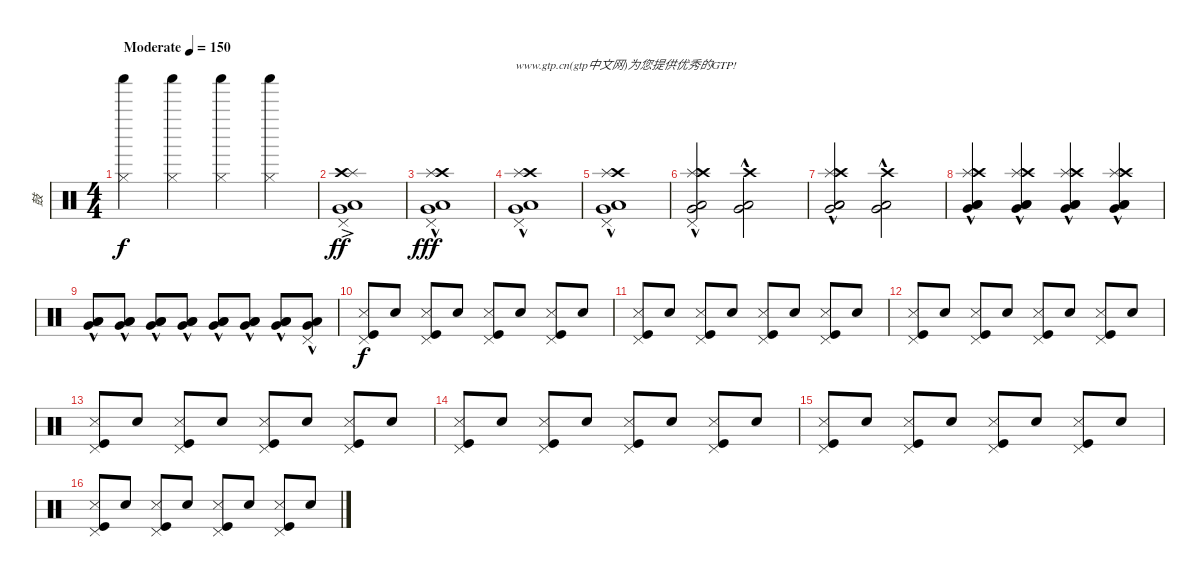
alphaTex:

\track ("鼓" "鼓") {instrument percussion}
\staff {score}
\articulation defaults
\ts (4 4)
\tempo (150 "Moderate")
\clef neutral
\ks c
("Hi-Hat (closed)" "Shaker (hit)").4{dy f} ("Hi-Hat (closed)" "Shaker (hit)").4 ("Hi-Hat (closed)" "Shaker (hit)").4 ("Hi-Hat (closed)" "Shaker (hit)").4 |
("Pedal Hi-Hat (hit)"{ac} "Low Tom (hit)"{ac} "Crash high (hit)"{ac} "Splash (hit)"{ac} "Very Low Tom (hit)"{ac}).1{dy ff} |
("Pedal Hi-Hat (hit)"{hac} "Low Tom (hit)"{hac} "Very Low Tom (hit)"{hac} "Splash (hit)"{hac} "Crash high (hit)"{hac}).1{dy fff} |
("Pedal Hi-Hat (hit)"{hac} "Low Tom (hit)"{hac} "Very Low Tom (hit)"{hac} "Splash (hit)"{hac} "Crash high (hit)"{hac}).1{txt "www.gtp.cn(gtp中文网)为您提供优秀的GTP!"} |
("Pedal Hi-Hat (hit)"{hac} "Low Tom (hit)"{hac} "Very Low Tom (hit)"{hac} "Splash (hit)"{hac} "Crash high (hit)"{hac}).1 |
("Pedal Hi-Hat (hit)"{hac} "Low Tom (hit)"{hac} "Very Low Tom (hit)"{hac} "Splash (hit)"{hac} "Crash high (hit)"{hac}).2 ("Low Floor Tom (hit)"{hac} "Very Low Tom (hit)"{hac} "Crash high (hit)"{hac}).2 |
("Low Floor Tom (hit)"{hac} "Low Tom (hit)"{hac} "Very Low Tom (hit)"{hac} "Splash (hit)"{hac} "Crash high (hit)"{hac}).2 ("Low Floor Tom (hit)"{hac} "Very Low Tom (hit)"{hac} "Crash high (hit)"{hac}).2 |
("Low Floor Tom (hit)"{hac} "Low Tom (hit)"{hac} "Very Low Tom (hit)"{hac} "Splash (hit)"{hac} "Crash high (hit)"{hac}).4 ("Low Floor Tom (hit)"{hac} "Low Tom (hit)"{hac} "Very Low Tom (hit)"{hac} "Splash (hit)"{hac} "Crash high (hit)"{hac}).4 ("Low Floor Tom (hit)"{hac} "Low Tom (hit)"{hac} "Very Low Tom (hit)"{hac} "Splash (hit)"{hac} "Crash high (hit)"{hac}).4 ("Low Floor Tom (hit)"{hac} "Low Tom (hit)"{hac} "Very Low Tom (hit)"{hac} "Splash (hit)"{hac} "Crash high (hit)"{hac}).4 |
("Low Floor Tom (hit)"{hac} "Low Tom (hit)"{hac} "Very Low Tom (hit)"{hac}).8 ("Low Floor Tom (hit)"{hac} "Low Tom (hit)"{hac} "Very Low Tom (hit)"{hac}).8 ("Low Floor Tom (hit)"{hac} "Low Tom (hit)"{hac} "Very Low Tom (hit)"{hac}).8 ("Low Floor Tom (hit)"{hac} "Low Tom (hit)"{hac} "Very Low Tom (hit)"{hac}).8 ("Low Floor Tom (hit)"{hac} "Low Tom (hit)"{hac} "Very Low Tom (hit)"{hac}).8 ("Low Floor Tom (hit)"{hac} "Low Tom (hit)"{hac} "Very Low Tom (hit)"{hac}).8 ("Low Floor Tom (hit)"{hac} "Low Tom (hit)"{hac} "Very Low Tom (hit)"{hac}).8 ("Low Floor Tom (hit)"{hac} "Pedal Hi-Hat (hit)"{hac} "Very Low Tom (hit)"{hac}).8 |
("Kick (hit)" "Snare (side stick) 3" "Pedal Hi-Hat (hit)").8{dy f} "Snare (hit) 2".8 ("Kick (hit)" "Snare (side stick) 3" "Pedal Hi-Hat (hit)").8 "Snare (hit) 2".8 ("Kick (hit)" "Snare (side stick) 3" "Pedal Hi-Hat (hit)").8 "Snare (hit) 2".8 ("Kick (hit)" "Snare (side stick) 3" "Pedal Hi-Hat (hit)").8 "Snare (hit) 2".8 |
("Kick (hit)" "Snare (side stick) 3" "Pedal Hi-Hat (hit)").8 "Snare (hit) 2".8 ("Kick (hit)" "Snare (side stick) 3" "Pedal Hi-Hat (hit)").8 "Snare (hit) 2".8 ("Kick (hit)" "Snare (side stick) 3" "Pedal Hi-Hat (hit)").8 "Snare (hit) 2".8 ("Kick (hit)" "Snare (side stick) 3" "Pedal Hi-Hat (hit)").8 "Snare (hit) 2".8 |
("Kick (hit)" "Snare (side stick) 3" "Pedal Hi-Hat (hit)").8 "Snare (hit) 2".8 ("Kick (hit)" "Snare (side stick) 3" "Pedal Hi-Hat (hit)").8 "Snare (hit) 2".8 ("Kick (hit)" "Snare (side stick) 3" "Pedal Hi-Hat (hit)").8 "Snare (hit) 2".8 ("Kick (hit)" "Snare (side stick) 3" "Pedal Hi-Hat (hit)").8 "Snare (hit) 2".8 |
("Kick (hit)" "Snare (side stick) 3" "Pedal Hi-Hat (hit)").8 "Snare (hit) 2".8 ("Kick (hit)" "Snare (side stick) 3" "Pedal Hi-Hat (hit)").8 "Snare (hit) 2".8 ("Kick (hit)" "Snare (side stick) 3" "Pedal Hi-Hat (hit)").8 "Snare (hit) 2".8 ("Kick (hit)" "Snare (side stick) 3" "Pedal Hi-Hat (hit)").8 "Snare (hit) 2".8 |
("Kick (hit)" "Snare (side stick) 3" "Pedal Hi-Hat (hit)").8 "Snare (hit) 2".8 ("Kick (hit)" "Snare (side stick) 3" "Pedal Hi-Hat (hit)").8 "Snare (hit) 2".8 ("Kick (hit)" "Snare (side stick) 3" "Pedal Hi-Hat (hit)").8 "Snare (hit) 2".8 ("Kick (hit)" "Snare (side stick) 3" "Pedal Hi-Hat (hit)").8 "Snare (hit) 2".8 |
("Kick (hit)" "Snare (side stick) 3" "Pedal Hi-Hat (hit)").8 "Snare (hit) 2".8 ("Kick (hit)" "Snare (side stick) 3" "Pedal Hi-Hat (hit)").8 "Snare (hit) 2".8 ("Kick (hit)" "Snare (side stick) 3" "Pedal Hi-Hat (hit)").8 "Snare (hit) 2".8 ("Kick (hit)" "Snare (side stick) 3" "Pedal Hi-Hat (hit)").8 "Snare (hit) 2".8 |
("Kick (hit)" "Snare (side stick) 3" "Pedal Hi-Hat (hit)").8 "Snare (hit) 2".8 ("Kick (hit)" "Snare (side stick) 3" "Pedal Hi-Hat (hit)").8 "Snare (hit) 2".8 ("Kick (hit)" "Snare (side stick) 3" "Pedal Hi-Hat (hit)").8 "Snare (hit) 2".8 ("Kick (hit)" "Snare (side stick) 3" "Pedal Hi-Hat (hit)").8 "Snare (hit) 2".8
